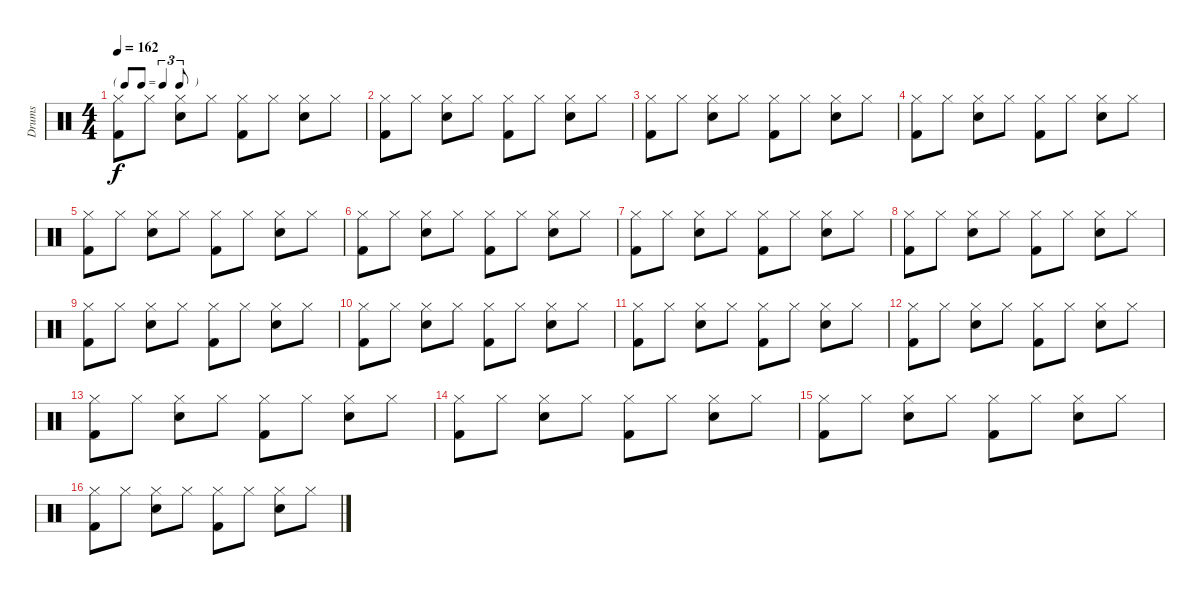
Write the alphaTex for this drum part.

\track ("Drums" "Drums") {instrument percussion}
\staff {score}
\articulation defaults
\ts (4 4)
\tf triplet8th
\tempo 162
\clef neutral
\ks c
("Hi-Hat (closed)" "Kick (hit) 2").8{dy f} "Hi-Hat (closed)".8 ("Hi-Hat (closed)" "Snare (hit) 2").8 "Hi-Hat (closed)".8 ("Hi-Hat (closed)" "Kick (hit) 2").8 "Hi-Hat (closed)".8 ("Hi-Hat (closed)" "Snare (hit) 2").8 "Hi-Hat (closed)".8 |
("Hi-Hat (closed)" "Kick (hit) 2").8 "Hi-Hat (closed)".8 ("Hi-Hat (closed)" "Snare (hit) 2").8 "Hi-Hat (closed)".8 ("Hi-Hat (closed)" "Kick (hit) 2").8 "Hi-Hat (closed)".8 ("Hi-Hat (closed)" "Snare (hit) 2").8 "Hi-Hat (closed)".8 |
("Hi-Hat (closed)" "Kick (hit) 2").8 "Hi-Hat (closed)".8 ("Hi-Hat (closed)" "Snare (hit) 2").8 "Hi-Hat (closed)".8 ("Hi-Hat (closed)" "Kick (hit) 2").8 "Hi-Hat (closed)".8 ("Hi-Hat (closed)" "Snare (hit) 2").8 "Hi-Hat (closed)".8 |
("Hi-Hat (closed)" "Kick (hit) 2").8 "Hi-Hat (closed)".8 ("Hi-Hat (closed)" "Snare (hit) 2").8 "Hi-Hat (closed)".8 ("Hi-Hat (closed)" "Kick (hit) 2").8 "Hi-Hat (closed)".8 ("Hi-Hat (closed)" "Snare (hit) 2").8 "Hi-Hat (closed)".8 |
("Hi-Hat (closed)" "Kick (hit) 2").8 "Hi-Hat (closed)".8 ("Hi-Hat (closed)" "Snare (hit) 2").8 "Hi-Hat (closed)".8 ("Hi-Hat (closed)" "Kick (hit) 2").8 "Hi-Hat (closed)".8 ("Hi-Hat (closed)" "Snare (hit) 2").8 "Hi-Hat (closed)".8 |
("Hi-Hat (closed)" "Kick (hit) 2").8 "Hi-Hat (closed)".8 ("Hi-Hat (closed)" "Snare (hit) 2").8 "Hi-Hat (closed)".8 ("Hi-Hat (closed)" "Kick (hit) 2").8 "Hi-Hat (closed)".8 ("Hi-Hat (closed)" "Snare (hit) 2").8 "Hi-Hat (closed)".8 |
("Hi-Hat (closed)" "Kick (hit) 2").8 "Hi-Hat (closed)".8 ("Hi-Hat (closed)" "Snare (hit) 2").8 "Hi-Hat (closed)".8 ("Hi-Hat (closed)" "Kick (hit) 2").8 "Hi-Hat (closed)".8 ("Hi-Hat (closed)" "Snare (hit) 2").8 "Hi-Hat (closed)".8 |
("Hi-Hat (closed)" "Kick (hit) 2").8 "Hi-Hat (closed)".8 ("Hi-Hat (closed)" "Snare (hit) 2").8 "Hi-Hat (closed)".8 ("Hi-Hat (closed)" "Kick (hit) 2").8 "Hi-Hat (closed)".8 ("Hi-Hat (closed)" "Snare (hit) 2").8 "Hi-Hat (closed)".8 |
("Hi-Hat (closed)" "Kick (hit) 2").8 "Hi-Hat (closed)".8 ("Hi-Hat (closed)" "Snare (hit) 2").8 "Hi-Hat (closed)".8 ("Hi-Hat (closed)" "Kick (hit) 2").8 "Hi-Hat (closed)".8 ("Hi-Hat (closed)" "Snare (hit) 2").8 "Hi-Hat (closed)".8 |
("Hi-Hat (closed)" "Kick (hit) 2").8 "Hi-Hat (closed)".8 ("Hi-Hat (closed)" "Snare (hit) 2").8 "Hi-Hat (closed)".8 ("Hi-Hat (closed)" "Kick (hit) 2").8 "Hi-Hat (closed)".8 ("Hi-Hat (closed)" "Snare (hit) 2").8 "Hi-Hat (closed)".8 |
("Hi-Hat (closed)" "Kick (hit) 2").8 "Hi-Hat (closed)".8 ("Hi-Hat (closed)" "Snare (hit) 2").8 "Hi-Hat (closed)".8 ("Hi-Hat (closed)" "Kick (hit) 2").8 "Hi-Hat (closed)".8 ("Hi-Hat (closed)" "Snare (hit) 2").8 "Hi-Hat (closed)".8 |
("Hi-Hat (closed)" "Kick (hit) 2").8 "Hi-Hat (closed)".8 ("Hi-Hat (closed)" "Snare (hit) 2").8 "Hi-Hat (closed)".8 ("Hi-Hat (closed)" "Kick (hit) 2").8 "Hi-Hat (closed)".8 ("Hi-Hat (closed)" "Snare (hit) 2").8 "Hi-Hat (closed)".8 |
("Hi-Hat (closed)" "Kick (hit) 2").8 "Hi-Hat (closed)".8 ("Hi-Hat (closed)" "Snare (hit) 2").8 "Hi-Hat (closed)".8 ("Hi-Hat (closed)" "Kick (hit) 2").8 "Hi-Hat (closed)".8 ("Hi-Hat (closed)" "Snare (hit) 2").8 "Hi-Hat (closed)".8 |
("Hi-Hat (closed)" "Kick (hit) 2").8 "Hi-Hat (closed)".8 ("Hi-Hat (closed)" "Snare (hit) 2").8 "Hi-Hat (closed)".8 ("Hi-Hat (closed)" "Kick (hit) 2").8 "Hi-Hat (closed)".8 ("Hi-Hat (closed)" "Snare (hit) 2").8 "Hi-Hat (closed)".8 |
("Hi-Hat (closed)" "Kick (hit) 2").8 "Hi-Hat (closed)".8 ("Hi-Hat (closed)" "Snare (hit) 2").8 "Hi-Hat (closed)".8 ("Hi-Hat (closed)" "Kick (hit) 2").8 "Hi-Hat (closed)".8 ("Hi-Hat (closed)" "Snare (hit) 2").8 "Hi-Hat (closed)".8 |
("Hi-Hat (closed)" "Kick (hit) 2").8 "Hi-Hat (closed)".8 ("Hi-Hat (closed)" "Snare (hit) 2").8 "Hi-Hat (closed)".8 ("Hi-Hat (closed)" "Kick (hit) 2").8 "Hi-Hat (closed)".8 ("Hi-Hat (closed)" "Snare (hit) 2").8 "Hi-Hat (closed)".8
